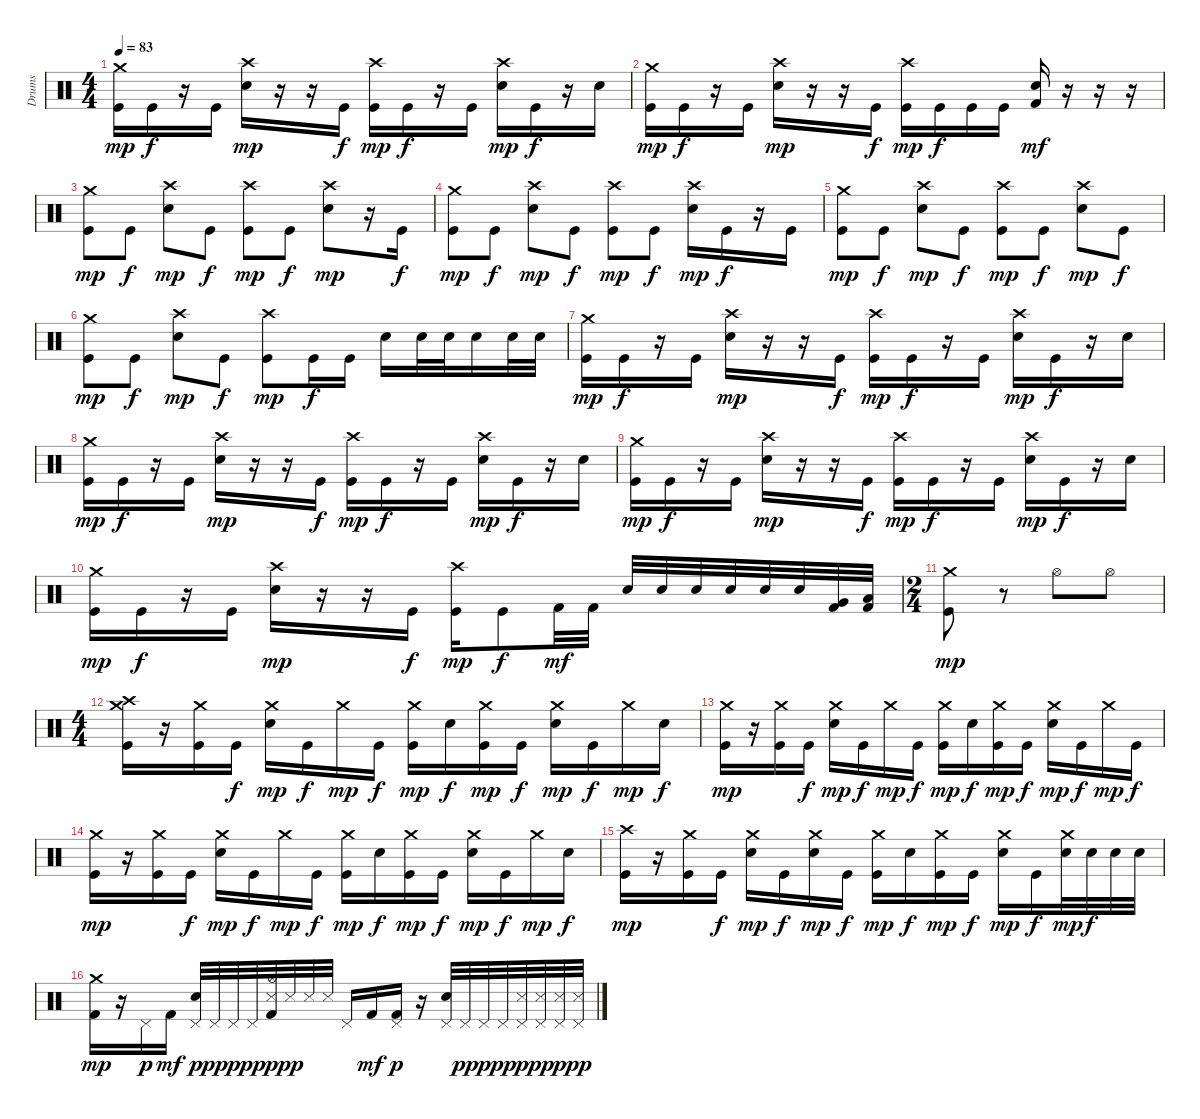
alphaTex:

\track ("Drums" "Drums") {instrument percussion}
\staff {score}
\articulation defaults
\ts (4 4)
\tempo 83
\clef neutral
\ks c
("Kick (hit)" "Crash medium (hit)").16{dy mp} "Kick (hit)".16{dy f} r.16 "Kick (hit)".16 ("Snare (hit) 2" "Crash high (hit)").16{dy mp} r.16 r.16 "Kick (hit)".16{dy f} ("Kick (hit)" "Crash high (hit)").16{dy mp} "Kick (hit)".16{dy f} r.16 "Kick (hit)".16 ("Snare (hit) 2" "Crash high (hit)").16{dy mp} "Kick (hit)".16{dy f} r.16 "Snare (hit) 2".16 |
("Kick (hit)" "Crash medium (hit)").16{dy mp} "Kick (hit)".16{dy f} r.16 "Kick (hit)".16 ("Snare (hit) 2" "Crash high (hit)").16{dy mp} r.16 r.16 "Kick (hit)".16{dy f} ("Kick (hit)" "Crash high (hit)").16{dy mp} "Kick (hit)".16{dy f} "Kick (hit)".16 "Kick (hit)".16 ("Snare (hit) 2" "Kick (hit) 2").16{dy mf} r.16 r.16 r.16 |
("Kick (hit)" "Crash medium (hit)").8{dy mp} "Kick (hit)".8{dy f} ("Snare (hit) 2" "Crash high (hit)").8{dy mp} "Kick (hit)".8{dy f} ("Kick (hit)" "Crash high (hit)").8{dy mp} "Kick (hit)".8{dy f} ("Snare (hit) 2" "Crash high (hit)").8{dy mp} r.16 "Kick (hit)".16{dy f} |
("Kick (hit)" "Crash medium (hit)").8{dy mp} "Kick (hit)".8{dy f} ("Snare (hit) 2" "Crash high (hit)").8{dy mp} "Kick (hit)".8{dy f} ("Kick (hit)" "Crash high (hit)").8{dy mp} "Kick (hit)".8{dy f} ("Snare (hit) 2" "Crash high (hit)").16{dy mp} "Kick (hit)".16{dy f} r.16 "Kick (hit)".16 |
("Kick (hit)" "Crash medium (hit)").8{dy mp} "Kick (hit)".8{dy f} ("Snare (hit) 2" "Crash high (hit)").8{dy mp} "Kick (hit)".8{dy f} ("Kick (hit)" "Crash high (hit)").8{dy mp} "Kick (hit)".8{dy f} ("Snare (hit) 2" "Crash high (hit)").8{dy mp} "Kick (hit)".8{dy f} |
("Kick (hit)" "Crash medium (hit)").8{dy mp} "Kick (hit)".8{dy f} ("Snare (hit) 2" "Crash high (hit)").8{dy mp} "Kick (hit)".8{dy f} ("Kick (hit)" "Crash high (hit)").8{dy mp} "Kick (hit)".16{dy f} "Kick (hit)".16 "Snare (hit) 2".16 "Snare (hit) 2".32 "Snare (hit) 2".32 "Snare (hit) 2".16 "Snare (hit) 2".32 "Snare (hit) 2".32 |
("Kick (hit)" "Crash medium (hit)").16{dy mp} "Kick (hit)".16{dy f} r.16 "Kick (hit)".16 ("Snare (hit) 2" "Crash high (hit)").16{dy mp} r.16 r.16 "Kick (hit)".16{dy f} ("Kick (hit)" "Crash high (hit)").16{dy mp} "Kick (hit)".16{dy f} r.16 "Kick (hit)".16 ("Snare (hit) 2" "Crash high (hit)").16{dy mp} "Kick (hit)".16{dy f} r.16 "Snare (hit) 2".16 |
("Kick (hit)" "Crash medium (hit)").16{dy mp} "Kick (hit)".16{dy f} r.16 "Kick (hit)".16 ("Snare (hit) 2" "Crash high (hit)").16{dy mp} r.16 r.16 "Kick (hit)".16{dy f} ("Kick (hit)" "Crash high (hit)").16{dy mp} "Kick (hit)".16{dy f} r.16 "Kick (hit)".16 ("Snare (hit) 2" "Crash high (hit)").16{dy mp} "Kick (hit)".16{dy f} r.16 "Snare (hit) 2".16 |
("Kick (hit)" "Crash medium (hit)").16{dy mp} "Kick (hit)".16{dy f} r.16 "Kick (hit)".16 ("Snare (hit) 2" "Crash high (hit)").16{dy mp} r.16 r.16 "Kick (hit)".16{dy f} ("Kick (hit)" "Crash high (hit)").16{dy mp} "Kick (hit)".16{dy f} r.16 "Kick (hit)".16 ("Snare (hit) 2" "Crash high (hit)").16{dy mp} "Kick (hit)".16{dy f} r.16 "Snare (hit) 2".16 |
("Kick (hit)" "Crash medium (hit)").16{dy mp} "Kick (hit)".16{dy f} r.16 "Kick (hit)".16 ("Snare (hit) 2" "Crash high (hit)").16{dy mp} r.16 r.16 "Kick (hit)".16{dy f} ("Kick (hit)" "Crash high (hit)").16{dy mp} "Kick (hit)".8{dy f} "Kick (hit) 2".32{dy mf} "Kick (hit) 2".32 "Snare (hit) 2".32 "Snare (hit) 2".32 "Snare (hit) 2".32 "Snare (hit) 2".32 "Snare (hit) 2".32 "Snare (hit) 2".32 ("Very Low Tom (hit)" "Kick (hit) 2").32 ("Low Floor Tom (hit)" "Kick (hit) 2").32 |
\ts (2 4)
("Kick (hit)" "Crash medium (hit)").8{dy mp} r.8 "Hi-Hat (open)".8 "Hi-Hat (open)".8 |
\ts (4 4)
("Kick (hit)" "Crash medium (hit)" "Crash high (hit)").16 r.16 ("Kick (hit)" "Crash medium (hit)").16 "Kick (hit)".16{dy f} ("Snare (hit) 2" "Crash medium (hit)").16{dy mp} "Kick (hit)".16{dy f} "Crash medium (hit)".16{dy mp} "Kick (hit)".16{dy f} ("Kick (hit)" "Crash medium (hit)").16{dy mp} "Snare (hit) 2".16{dy f} ("Kick (hit)" "Crash medium (hit)").16{dy mp} "Kick (hit)".16{dy f} ("Snare (hit) 2" "Crash medium (hit)").16{dy mp} "Kick (hit)".16{dy f} "Crash medium (hit)".16{dy mp} "Snare (hit) 2".16{dy f} |
("Kick (hit)" "Crash medium (hit)").16{dy mp} r.16 ("Kick (hit)" "Crash medium (hit)").16 "Kick (hit)".16{dy f} ("Snare (hit) 2" "Crash medium (hit)").16{dy mp} "Kick (hit)".16{dy f} "Crash medium (hit)".16{dy mp} "Kick (hit)".16{dy f} ("Kick (hit)" "Crash medium (hit)").16{dy mp} "Snare (hit) 2".16{dy f} ("Kick (hit)" "Crash medium (hit)").16{dy mp} "Kick (hit)".16{dy f} ("Snare (hit) 2" "Crash medium (hit)").16{dy mp} "Kick (hit)".16{dy f} "Crash medium (hit)".16{dy mp} "Kick (hit)".16{dy f} |
("Kick (hit)" "Crash medium (hit)").16{dy mp} r.16 ("Kick (hit)" "Crash medium (hit)").16 "Kick (hit)".16{dy f} ("Snare (hit) 2" "Crash medium (hit)").16{dy mp} "Kick (hit)".16{dy f} "Crash medium (hit)".16{dy mp} "Kick (hit)".16{dy f} ("Kick (hit)" "Crash medium (hit)").16{dy mp} "Snare (hit) 2".16{dy f} ("Kick (hit)" "Crash medium (hit)").16{dy mp} "Kick (hit)".16{dy f} ("Snare (hit) 2" "Crash medium (hit)").16{dy mp} "Kick (hit)".16{dy f} "Crash medium (hit)".16{dy mp} "Snare (hit) 2".16{dy f} |
("Kick (hit)" "Crash high (hit)").16{dy mp} r.16 ("Kick (hit)" "Crash medium (hit)").16 "Kick (hit)".16{dy f} ("Snare (hit) 2" "Crash medium (hit)").16{dy mp} "Kick (hit)".16{dy f} ("Snare (hit) 2" "Crash medium (hit)").16{dy mp} "Kick (hit)".16{dy f} ("Kick (hit)" "Crash medium (hit)").16{dy mp} "Snare (hit) 2".16{dy f} ("Kick (hit)" "Crash medium (hit)").16{dy mp} "Kick (hit)".16{dy f} ("Snare (hit) 2" "Crash medium (hit)").16{dy mp} "Kick (hit)".16{dy f} ("Snare (hit) 2" "Crash medium (hit)").32{dy mp} "Snare (hit) 2".32{dy f} "Snare (hit) 2".32 "Snare (hit) 2".32 |
("Kick (hit) 2" "Crash medium (hit)").16{dy mp} r.16 "Pedal Hi-Hat (hit)".16{dy p} "Kick (hit) 2".16{dy mf} ("Snare (hit) 2" "Pedal Hi-Hat (hit)").32{dy p} "Pedal Hi-Hat (hit)".32{dy pp} "Pedal Hi-Hat (hit)".32{dy p} "Pedal Hi-Hat (hit)".32{dy pp} ("Kick (hit) 2" "Snare (side stick) 3" "Hi-Hat (open)").32{dy p} "Snare (side stick) 3".32{dy pp} "Snare (side stick) 3".32 "Snare (side stick) 3".32 "Pedal Hi-Hat (hit)".16 "Kick (hit) 2".16{dy mf} ("Kick (hit) 2" "Pedal Hi-Hat (hit)").16{dy p} r.16 ("Snare (hit) 2" "Pedal Hi-Hat (hit)").32 "Pedal Hi-Hat (hit)".32{dy pp} "Pedal Hi-Hat (hit)".32{dy p} "Pedal Hi-Hat (hit)".32{dy pp} ("Snare (side stick) 3" "Pedal Hi-Hat (hit)").32{dy p} ("Snare (side stick) 3" "Pedal Hi-Hat (hit)").32{dy pp} ("Snare (side stick) 3" "Pedal Hi-Hat (hit)").32{dy p} ("Snare (side stick) 3" "Pedal Hi-Hat (hit)").32{dy pp}
